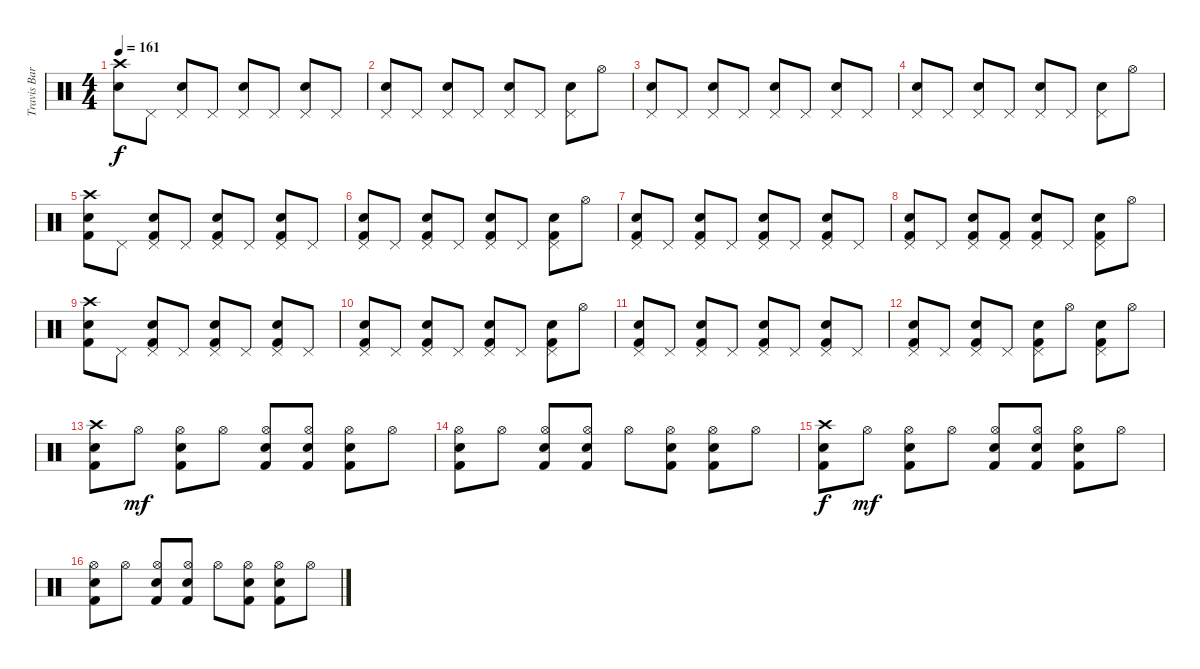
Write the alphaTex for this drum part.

\track ("Travis Barker - Drums" "Travis Bar") {instrument percussion}
\staff {score}
\articulation defaults
\ts (4 4)
\tempo 161
\clef neutral
\ks c
("Crash high (hit)" "Electric Snare (hit)").8{dy f} "Pedal Hi-Hat (hit)".8 ("Pedal Hi-Hat (hit)" "Electric Snare (hit)").8 "Pedal Hi-Hat (hit)".8 ("Pedal Hi-Hat (hit)" "Electric Snare (hit)").8 "Pedal Hi-Hat (hit)".8 ("Pedal Hi-Hat (hit)" "Electric Snare (hit)").8 "Pedal Hi-Hat (hit)".8 |
("Pedal Hi-Hat (hit)" "Electric Snare (hit)").8 "Pedal Hi-Hat (hit)".8 ("Pedal Hi-Hat (hit)" "Electric Snare (hit)").8 "Pedal Hi-Hat (hit)".8 ("Pedal Hi-Hat (hit)" "Electric Snare (hit)").8 "Pedal Hi-Hat (hit)".8 ("Pedal Hi-Hat (hit)" "Electric Snare (hit)").8 "Hi-Hat (open)".8 |
("Pedal Hi-Hat (hit)" "Electric Snare (hit)").8 "Pedal Hi-Hat (hit)".8 ("Pedal Hi-Hat (hit)" "Electric Snare (hit)").8 "Pedal Hi-Hat (hit)".8 ("Pedal Hi-Hat (hit)" "Electric Snare (hit)").8 "Pedal Hi-Hat (hit)".8 ("Pedal Hi-Hat (hit)" "Electric Snare (hit)").8 "Pedal Hi-Hat (hit)".8 |
("Pedal Hi-Hat (hit)" "Electric Snare (hit)").8 "Pedal Hi-Hat (hit)".8 ("Pedal Hi-Hat (hit)" "Electric Snare (hit)").8 "Pedal Hi-Hat (hit)".8 ("Pedal Hi-Hat (hit)" "Electric Snare (hit)").8 "Pedal Hi-Hat (hit)".8 ("Pedal Hi-Hat (hit)" "Electric Snare (hit)").8 "Hi-Hat (open)".8 |
("Crash high (hit)" "Electric Snare (hit)" "Kick (hit) 2").8 "Pedal Hi-Hat (hit)".8 ("Pedal Hi-Hat (hit)" "Electric Snare (hit)" "Kick (hit) 2").8 "Pedal Hi-Hat (hit)".8 ("Pedal Hi-Hat (hit)" "Electric Snare (hit)" "Kick (hit) 2").8 "Pedal Hi-Hat (hit)".8 ("Pedal Hi-Hat (hit)" "Electric Snare (hit)" "Kick (hit) 2").8 "Pedal Hi-Hat (hit)".8 |
("Pedal Hi-Hat (hit)" "Electric Snare (hit)" "Kick (hit) 2").8 "Pedal Hi-Hat (hit)".8 ("Pedal Hi-Hat (hit)" "Electric Snare (hit)" "Kick (hit) 2").8 "Pedal Hi-Hat (hit)".8 ("Pedal Hi-Hat (hit)" "Electric Snare (hit)" "Kick (hit) 2").8 "Pedal Hi-Hat (hit)".8 ("Pedal Hi-Hat (hit)" "Electric Snare (hit)" "Kick (hit) 2").8 "Hi-Hat (open)".8 |
("Pedal Hi-Hat (hit)" "Electric Snare (hit)" "Kick (hit) 2").8 "Pedal Hi-Hat (hit)".8 ("Pedal Hi-Hat (hit)" "Electric Snare (hit)" "Kick (hit) 2").8 "Pedal Hi-Hat (hit)".8 ("Pedal Hi-Hat (hit)" "Electric Snare (hit)" "Kick (hit) 2").8 "Pedal Hi-Hat (hit)".8 ("Pedal Hi-Hat (hit)" "Electric Snare (hit)" "Kick (hit) 2").8 "Pedal Hi-Hat (hit)".8 |
("Pedal Hi-Hat (hit)" "Electric Snare (hit)" "Kick (hit) 2").8 "Pedal Hi-Hat (hit)".8 ("Pedal Hi-Hat (hit)" "Electric Snare (hit)" "Kick (hit) 2").8 ("Pedal Hi-Hat (hit)" "Kick (hit) 2").8 ("Pedal Hi-Hat (hit)" "Electric Snare (hit)" "Kick (hit) 2").8 "Pedal Hi-Hat (hit)".8 ("Pedal Hi-Hat (hit)" "Electric Snare (hit)" "Kick (hit) 2").8 "Hi-Hat (open)".8 |
("Crash high (hit)" "Electric Snare (hit)" "Kick (hit) 2").8 "Pedal Hi-Hat (hit)".8 ("Pedal Hi-Hat (hit)" "Electric Snare (hit)" "Kick (hit) 2").8 "Pedal Hi-Hat (hit)".8 ("Pedal Hi-Hat (hit)" "Electric Snare (hit)" "Kick (hit) 2").8 "Pedal Hi-Hat (hit)".8 ("Pedal Hi-Hat (hit)" "Electric Snare (hit)" "Kick (hit) 2").8 "Pedal Hi-Hat (hit)".8 |
("Pedal Hi-Hat (hit)" "Electric Snare (hit)" "Kick (hit) 2").8 "Pedal Hi-Hat (hit)".8 ("Pedal Hi-Hat (hit)" "Electric Snare (hit)" "Kick (hit) 2").8 "Pedal Hi-Hat (hit)".8 ("Pedal Hi-Hat (hit)" "Electric Snare (hit)" "Kick (hit) 2").8 "Pedal Hi-Hat (hit)".8 ("Pedal Hi-Hat (hit)" "Electric Snare (hit)" "Kick (hit) 2").8 "Hi-Hat (open)".8 |
("Pedal Hi-Hat (hit)" "Electric Snare (hit)" "Kick (hit) 2").8 "Pedal Hi-Hat (hit)".8 ("Pedal Hi-Hat (hit)" "Electric Snare (hit)" "Kick (hit) 2").8 "Pedal Hi-Hat (hit)".8 ("Pedal Hi-Hat (hit)" "Electric Snare (hit)" "Kick (hit) 2").8 "Pedal Hi-Hat (hit)".8 ("Pedal Hi-Hat (hit)" "Electric Snare (hit)" "Kick (hit) 2").8 "Pedal Hi-Hat (hit)".8 |
("Pedal Hi-Hat (hit)" "Electric Snare (hit)" "Kick (hit) 2").8 "Pedal Hi-Hat (hit)".8 ("Pedal Hi-Hat (hit)" "Electric Snare (hit)" "Kick (hit) 2").8 "Pedal Hi-Hat (hit)".8 ("Pedal Hi-Hat (hit)" "Electric Snare (hit)" "Kick (hit) 2").8 "Hi-Hat (open)".8 ("Pedal Hi-Hat (hit)" "Electric Snare (hit)" "Kick (hit) 2").8 "Hi-Hat (open)".8 |
("Crash high (hit)" "Electric Snare (hit)" "Kick (hit) 2").8 "Hi-Hat (open)".8{dy mf} ("Hi-Hat (open)" "Electric Snare (hit)" "Kick (hit) 2").8 "Hi-Hat (open)".8 ("Hi-Hat (open)" "Electric Snare (hit)" "Kick (hit) 2").8 ("Hi-Hat (open)" "Electric Snare (hit)" "Kick (hit) 2").8 ("Hi-Hat (open)" "Electric Snare (hit)" "Kick (hit) 2").8 "Hi-Hat (open)".8 |
("Hi-Hat (open)" "Electric Snare (hit)" "Kick (hit) 2").8 "Hi-Hat (open)".8 ("Hi-Hat (open)" "Electric Snare (hit)" "Kick (hit) 2").8 ("Hi-Hat (open)" "Electric Snare (hit)" "Kick (hit) 2").8 "Hi-Hat (open)".8 ("Hi-Hat (open)" "Electric Snare (hit)" "Kick (hit) 2").8 ("Hi-Hat (open)" "Electric Snare (hit)" "Kick (hit) 2").8 "Hi-Hat (open)".8 |
("Crash high (hit)" "Electric Snare (hit)" "Kick (hit) 2").8{dy f} "Hi-Hat (open)".8{dy mf} ("Hi-Hat (open)" "Electric Snare (hit)" "Kick (hit) 2").8 "Hi-Hat (open)".8 ("Hi-Hat (open)" "Electric Snare (hit)" "Kick (hit) 2").8 ("Hi-Hat (open)" "Electric Snare (hit)" "Kick (hit) 2").8 ("Hi-Hat (open)" "Electric Snare (hit)" "Kick (hit) 2").8 "Hi-Hat (open)".8 |
("Hi-Hat (open)" "Electric Snare (hit)" "Kick (hit) 2").8 "Hi-Hat (open)".8 ("Hi-Hat (open)" "Electric Snare (hit)" "Kick (hit) 2").8 ("Hi-Hat (open)" "Electric Snare (hit)" "Kick (hit) 2").8 "Hi-Hat (open)".8 ("Hi-Hat (open)" "Electric Snare (hit)" "Kick (hit) 2").8 ("Hi-Hat (open)" "Electric Snare (hit)" "Kick (hit) 2").8 "Hi-Hat (open)".8
